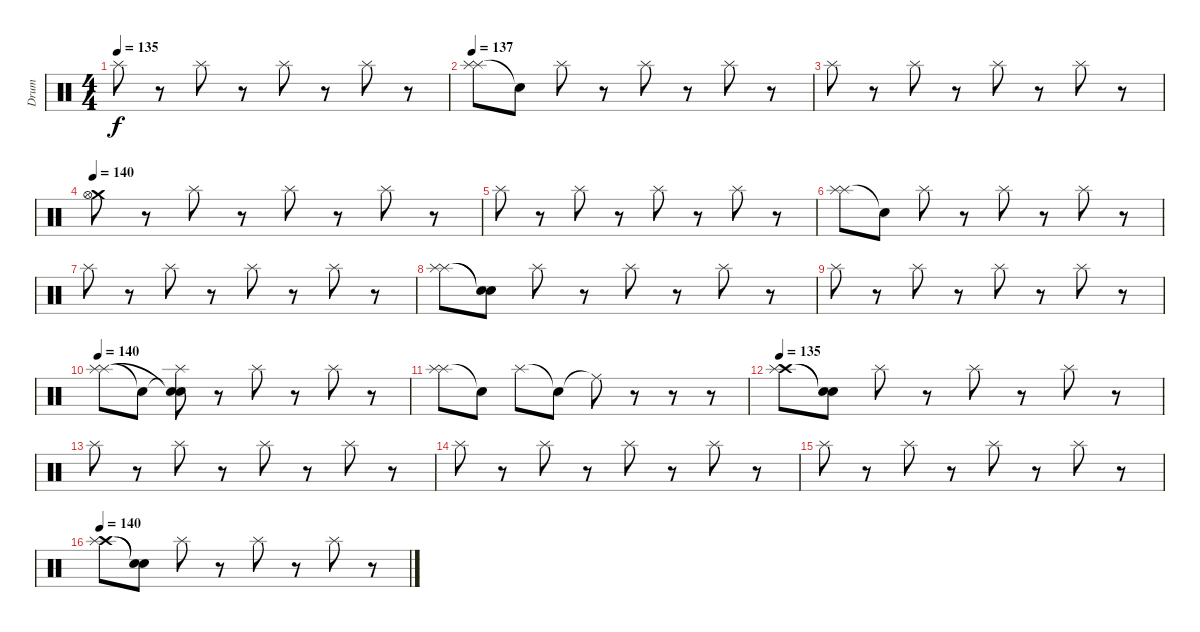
\track ("Drum" "Drum") {instrument percussion}
\staff {score}
\articulation defaults
\ts (4 4)
\tempo 135
\clef neutral
\ks c "Splash (hit)".8{dy f}
r.8 "Splash (hit)".8 r.8 "Splash (hit)".8 r.8 "Splash (hit)".8 r.8 |
\tempo 137
("Splash (hit)" "Splash (hit)").8 "Snare (hit)"{t}.8 "Splash (hit)".8 r.8 "Splash (hit)".8 r.8 "Splash (hit)".8 r.8 |
"Splash (hit)".8 r.8 "Splash (hit)".8 r.8 "Splash (hit)".8 r.8 "Splash (hit)".8 r.8 |
\tempo 140
("Crash medium (hit)" "Hi-Hat (open)").8 r.8 "Splash (hit)".8 r.8 "Splash (hit)".8 r.8 "Splash (hit)".8 r.8 |
"Splash (hit)".8 r.8 "Splash (hit)".8 r.8 "Splash (hit)".8 r.8 "Splash (hit)".8 r.8 |
("Splash (hit)" "Splash (hit)").8 "Snare (hit)"{t}.8 "Splash (hit)".8 r.8 "Splash (hit)".8 r.8 "Splash (hit)".8 r.8 |
"Splash (hit)".8 r.8 "Splash (hit)".8 r.8 "Splash (hit)".8 r.8 "Splash (hit)".8 r.8 |
("Splash (hit)" "Splash (hit)").8 ("Snare (hit)"{t} "Snare (hit)"{t}).8 "Splash (hit)".8 r.8 "Splash (hit)".8 r.8 "Splash (hit)".8 r.8 |
"Splash (hit)".8 r.8 "Splash (hit)".8 r.8 "Splash (hit)".8 r.8 "Splash (hit)".8 r.8 |
\tempo 140
("Splash (hit)" "Splash (hit)").8 "Snare (hit)"{t}.8 ("Snare (hit)"{t} "Snare (hit)"{t} "Splash (hit)").8 r.8 "Splash (hit)".8 r.8 "Splash (hit)".8 r.8 |
("Splash (hit)" "Splash (hit)").8 "Snare (hit)"{t}.8 "Splash (hit)".8 "Snare (hit)"{t}.8 "Ride (middle)"{t}.8 r.8 r.8 r.8 |
\tempo 135
("Crash high (hit)" "Splash (hit)").8 ("Snare (hit)"{t} "Snare (hit)"{t}).8 "Splash (hit)".8 r.8 "Splash (hit)".8 r.8 "Splash (hit)".8 r.8 |
"Splash (hit)".8 r.8 "Splash (hit)".8 r.8 "Splash (hit)".8 r.8 "Splash (hit)".8 r.8 |
"Splash (hit)".8 r.8 "Splash (hit)".8 r.8 "Splash (hit)".8 r.8 "Splash (hit)".8 r.8 |
"Splash (hit)".8 r.8 "Splash (hit)".8 r.8 "Splash (hit)".8 r.8 "Splash (hit)".8 r.8 |
\tempo 140
("Crash high (hit)" "Splash (hit)").8 ("Snare (hit)"{t} "Snare (hit)"{t}).8 "Splash (hit)".8 r.8 "Splash (hit)".8 r.8 "Splash (hit)".8 r.8
